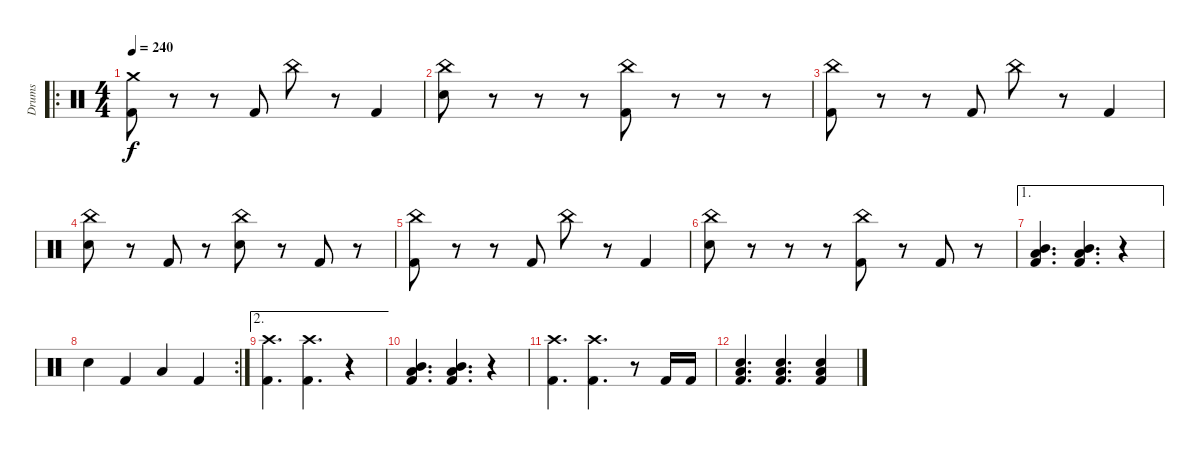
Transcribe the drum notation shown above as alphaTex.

\track ("Drums" "Drums") {instrument percussion}
\staff {score}
\articulation defaults
\ro
\ts (4 4)
\tempo 240
\clef neutral
\ks c
("Kick (hit) 2" "Crash medium (hit)").8{dy f} r.8 r.8 "Kick (hit) 2".8 "China (hit)".8 r.8 "Kick (hit) 2".4 |
("Electric Snare (hit)" "China (hit)").8 r.8 r.8 r.8 ("Kick (hit) 2" "China (hit)").8 r.8 r.8 r.8 |
("Kick (hit) 2" "China (hit)").8 r.8 r.8 "Kick (hit) 2".8 "China (hit)".8 r.8 "Kick (hit) 2".4 |
("Electric Snare (hit)" "China (hit)").8 r.8 "Kick (hit) 2".8 r.8 ("Electric Snare (hit)" "China (hit)").8 r.8 "Kick (hit) 2".8 r.8 |
("Kick (hit) 2" "China (hit)").8 r.8 r.8 "Kick (hit) 2".8 "China (hit)".8 r.8 "Kick (hit) 2".4 |
("Electric Snare (hit)" "China (hit)").8 r.8 r.8 r.8 ("Kick (hit) 2" "China (hit)").8 r.8 "Kick (hit) 2".8 r.8 |
\ae 1
("Kick (hit) 2" "Low Tom (hit)" "Mid Tom (hit)").4{d} ("Kick (hit) 2" "Low Tom (hit)" "Mid Tom (hit)").4{d} r.4 |
\rc 2 "Electric Snare (hit)".4 "Kick (hit) 2".4 "Low Tom (hit)".4 "Kick (hit) 2".4
|
\ae 2
("Kick (hit) 2" "Crash high (hit)").4{d} ("Kick (hit) 2" "Crash high (hit)").4{d} r.4 |
("Kick (hit) 2" "Low Tom (hit)" "Mid Tom (hit)").4{d} ("Kick (hit) 2" "Low Tom (hit)" "Mid Tom (hit)").4{d} r.4 |
("Kick (hit) 2" "Crash high (hit)").4{d} ("Kick (hit) 2" "Crash high (hit)").4{d} r.8 "Kick (hit) 2".16 "Kick (hit) 2".16 |
("Kick (hit) 2" "Electric Snare (hit)" "Low Tom (hit)").4{d} ("Kick (hit) 2" "Electric Snare (hit)" "Low Tom (hit)").4{d} ("Kick (hit) 2" "Electric Snare (hit)" "Low Tom (hit)").4
